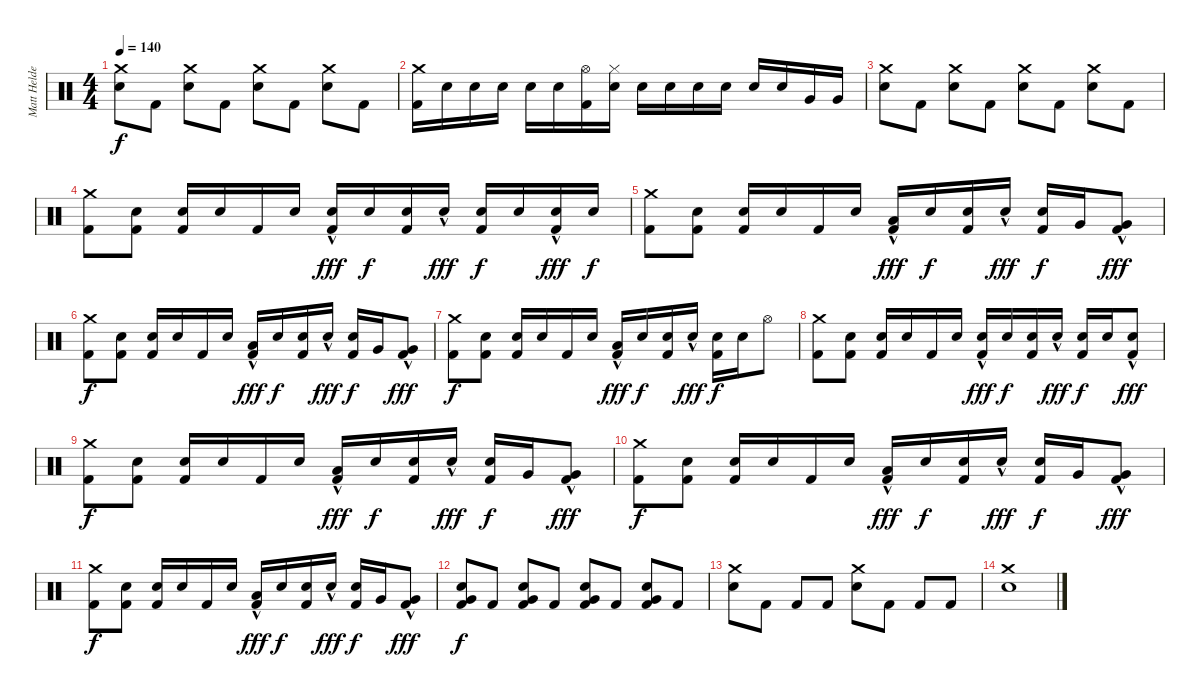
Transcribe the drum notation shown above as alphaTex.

\track ("Matt Helders" "Matt Helde") {instrument percussion}
\staff {score}
\articulation defaults
\ts (4 4)
\tempo 140
\clef neutral
\ks c
("Snare (hit) 2" "Crash medium (hit)").8{dy f} "Kick (hit) 2".8 ("Snare (hit) 2" "Crash medium (hit)").8 "Kick (hit) 2".8 ("Snare (hit) 2" "Crash medium (hit)").8 "Kick (hit) 2".8 ("Snare (hit) 2" "Crash medium (hit)").8 "Kick (hit) 2".8 |
("Crash medium (hit)" "Kick (hit) 2").16 "Snare (hit) 2".16 "Snare (hit) 2".16 "Snare (hit) 2".16 "Snare (hit) 2".16 "Snare (hit) 2".16 ("Hi-Hat (open)" "Kick (hit) 2").16 ("Snare (hit) 2" "Hi-Hat (closed)").16 "Snare (hit) 2".16 "Snare (hit) 2".16 "Snare (hit) 2".16 "Snare (hit) 2".16 "Snare (hit) 2".16 "Snare (hit) 2".16 "Very Low Tom (hit)".16 "Very Low Tom (hit)".16 |
("Snare (hit) 2" "Crash medium (hit)").8 "Kick (hit) 2".8 ("Snare (hit) 2" "Crash medium (hit)").8 "Kick (hit) 2".8 ("Snare (hit) 2" "Crash medium (hit)").8 "Kick (hit) 2".8 ("Snare (hit) 2" "Crash medium (hit)").8 "Kick (hit) 2".8 |
("Crash medium (hit)" "Kick (hit) 2").8 ("Snare (hit) 2" "Kick (hit) 2").8 ("Snare (hit) 2" "Kick (hit) 2").16 "Snare (hit) 2".16 "Kick (hit) 2".16 "Snare (hit) 2".16 ("Snare (hit) 2"{hac} "Kick (hit) 2").16{dy fff} "Snare (hit) 2".16{dy f} ("Snare (hit) 2" "Kick (hit) 2").16 "Snare (hit) 2"{hac}.16{dy fff} ("Snare (hit) 2" "Kick (hit) 2").16{dy f} "Snare (hit) 2".16 ("Snare (hit) 2"{hac} "Kick (hit) 2").16{dy fff} "Snare (hit) 2".16{dy f} |
("Crash medium (hit)" "Kick (hit) 2").8 ("Snare (hit) 2" "Kick (hit) 2").8 ("Snare (hit) 2" "Kick (hit) 2").16 "Snare (hit) 2".16 "Kick (hit) 2".16 "Snare (hit) 2".16 ("Low Tom (hit)"{hac} "Kick (hit) 2").16{dy fff} "Snare (hit) 2".16{dy f} ("Snare (hit) 2" "Kick (hit) 2").16 "Snare (hit) 2"{hac}.16{dy fff} ("Snare (hit) 2" "Kick (hit) 2").16{dy f} "Very Low Tom (hit)".16 ("Very Low Tom (hit)"{hac} "Kick (hit) 2").8{dy fff} |
("Crash medium (hit)" "Kick (hit) 2").8{dy f} ("Snare (hit) 2" "Kick (hit) 2").8 ("Snare (hit) 2" "Kick (hit) 2").16 "Snare (hit) 2".16 "Kick (hit) 2".16 "Snare (hit) 2".16 ("Low Tom (hit)"{hac} "Kick (hit) 2").16{dy fff} "Snare (hit) 2".16{dy f} ("Snare (hit) 2" "Kick (hit) 2").16 "Snare (hit) 2"{hac}.16{dy fff} ("Snare (hit) 2" "Kick (hit) 2").16{dy f} "Very Low Tom (hit)".16 ("Very Low Tom (hit)"{hac} "Kick (hit) 2").8{dy fff} |
("Crash medium (hit)" "Kick (hit) 2").8{dy f} ("Snare (hit) 2" "Kick (hit) 2").8 ("Snare (hit) 2" "Kick (hit) 2").16 "Snare (hit) 2".16 "Kick (hit) 2".16 "Snare (hit) 2".16 ("Low Tom (hit)"{hac} "Kick (hit) 2").16{dy fff} "Snare (hit) 2".16{dy f} ("Snare (hit) 2" "Kick (hit) 2").16 "Snare (hit) 2"{hac}.16{dy fff} ("Snare (hit) 2" "Kick (hit) 2").16{dy f} "Snare (hit) 2".16 "Hi-Hat (open)".8 |
("Crash medium (hit)" "Kick (hit) 2").8 ("Snare (hit) 2" "Kick (hit) 2").8 ("Snare (hit) 2" "Kick (hit) 2").16 "Snare (hit) 2".16 "Kick (hit) 2".16 "Snare (hit) 2".16 ("Snare (hit) 2"{hac} "Kick (hit) 2").16{dy fff} "Snare (hit) 2".16{dy f} ("Snare (hit) 2" "Kick (hit) 2").16 "Snare (hit) 2"{hac}.16{dy fff} ("Snare (hit) 2" "Kick (hit) 2").16{dy f} "Snare (hit) 2".16 ("Snare (hit) 2"{hac} "Kick (hit) 2").8{dy fff} |
("Crash medium (hit)" "Kick (hit) 2").8{dy f} ("Snare (hit) 2" "Kick (hit) 2").8 ("Snare (hit) 2" "Kick (hit) 2").16 "Snare (hit) 2".16 "Kick (hit) 2".16 "Snare (hit) 2".16 ("Low Tom (hit)"{hac} "Kick (hit) 2").16{dy fff} "Snare (hit) 2".16{dy f} ("Snare (hit) 2" "Kick (hit) 2").16 "Snare (hit) 2"{hac}.16{dy fff} ("Snare (hit) 2" "Kick (hit) 2").16{dy f} "Very Low Tom (hit)".16 ("Very Low Tom (hit)"{hac} "Kick (hit) 2").8{dy fff} |
("Crash medium (hit)" "Kick (hit) 2").8{dy f} ("Snare (hit) 2" "Kick (hit) 2").8 ("Snare (hit) 2" "Kick (hit) 2").16 "Snare (hit) 2".16 "Kick (hit) 2".16 "Snare (hit) 2".16 ("Low Tom (hit)"{hac} "Kick (hit) 2").16{dy fff} "Snare (hit) 2".16{dy f} ("Snare (hit) 2" "Kick (hit) 2").16 "Snare (hit) 2"{hac}.16{dy fff} ("Snare (hit) 2" "Kick (hit) 2").16{dy f} "Very Low Tom (hit)".16 ("Very Low Tom (hit)"{hac} "Kick (hit) 2").8{dy fff} |
("Crash medium (hit)" "Kick (hit) 2").8{dy f} ("Snare (hit) 2" "Kick (hit) 2").8 ("Snare (hit) 2" "Kick (hit) 2").16 "Snare (hit) 2".16 "Kick (hit) 2".16 "Snare (hit) 2".16 ("Low Tom (hit)"{hac} "Kick (hit) 2").16{dy fff} "Snare (hit) 2".16{dy f} ("Snare (hit) 2" "Kick (hit) 2").16 "Snare (hit) 2"{hac}.16{dy fff} ("Snare (hit) 2" "Kick (hit) 2").16{dy f} "Very Low Tom (hit)".16 ("Very Low Tom (hit)"{hac} "Kick (hit) 2").8{dy fff} |
("Snare (hit) 2" "Very Low Tom (hit)" "Kick (hit) 2").8{dy f} "Kick (hit) 2".8 ("Snare (hit) 2" "Very Low Tom (hit)" "Kick (hit) 2").8 "Kick (hit) 2".8 ("Snare (hit) 2" "Very Low Tom (hit)" "Kick (hit) 2").8 "Kick (hit) 2".8 ("Snare (hit) 2" "Very Low Tom (hit)" "Kick (hit) 2").8 "Kick (hit) 2".8 |
("Crash medium (hit)" "Snare (hit) 2").8 "Kick (hit) 2".8 "Kick (hit) 2".8 "Kick (hit) 2".8 ("Crash medium (hit)" "Snare (hit) 2").8 "Kick (hit) 2".8 "Kick (hit) 2".8 "Kick (hit) 2".8 |
("Crash medium (hit)" "Snare (hit) 2").1
